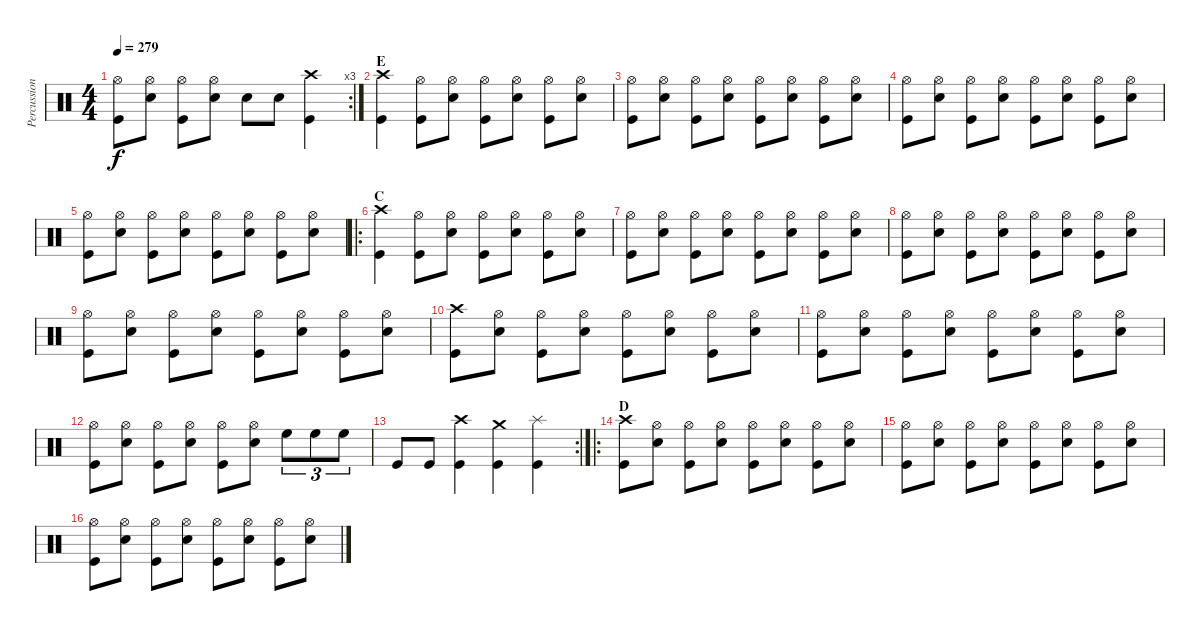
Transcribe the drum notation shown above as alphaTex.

\track ("Percussion" "Percussion") {instrument percussion}
\staff {score}
\articulation defaults
\rc 3
\ts (4 4)
\tempo 279
\clef neutral
\ks c
("Hi-Hat (open)" "Kick (hit)").8{dy f} ("Hi-Hat (open)" "Snare (hit) 2").8 ("Hi-Hat (open)" "Kick (hit)").8 ("Hi-Hat (open)" "Snare (hit) 2").8 "Snare (hit) 2".8 "Snare (hit) 2".8 ("Crash high (hit)" "Kick (hit)").4 |
\section ("" "E")
("Crash high (hit)" "Kick (hit)").4 ("Hi-Hat (open)" "Kick (hit)").8 ("Hi-Hat (open)" "Snare (hit) 2").8 ("Hi-Hat (open)" "Kick (hit)").8 ("Hi-Hat (open)" "Snare (hit) 2").8 ("Hi-Hat (open)" "Kick (hit)").8 ("Hi-Hat (open)" "Snare (hit) 2").8 |
("Hi-Hat (open)" "Kick (hit)").8 ("Hi-Hat (open)" "Snare (hit) 2").8 ("Hi-Hat (open)" "Kick (hit)").8 ("Hi-Hat (open)" "Snare (hit) 2").8 ("Hi-Hat (open)" "Kick (hit)").8 ("Hi-Hat (open)" "Snare (hit) 2").8 ("Hi-Hat (open)" "Kick (hit)").8 ("Hi-Hat (open)" "Snare (hit) 2").8 |
("Hi-Hat (open)" "Kick (hit)").8 ("Hi-Hat (open)" "Snare (hit) 2").8 ("Hi-Hat (open)" "Kick (hit)").8 ("Hi-Hat (open)" "Snare (hit) 2").8 ("Hi-Hat (open)" "Kick (hit)").8 ("Hi-Hat (open)" "Snare (hit) 2").8 ("Hi-Hat (open)" "Kick (hit)").8 ("Hi-Hat (open)" "Snare (hit) 2").8 |
("Hi-Hat (open)" "Kick (hit)").8 ("Hi-Hat (open)" "Snare (hit) 2").8 ("Hi-Hat (open)" "Kick (hit)").8 ("Hi-Hat (open)" "Snare (hit) 2").8 ("Hi-Hat (open)" "Kick (hit)").8 ("Hi-Hat (open)" "Snare (hit) 2").8 ("Hi-Hat (open)" "Kick (hit)").8 ("Hi-Hat (open)" "Snare (hit) 2").8 |
\ro
\section ("" "C")
("Crash high (hit)" "Kick (hit)").4 ("Hi-Hat (open)" "Kick (hit)").8 ("Hi-Hat (open)" "Snare (hit) 2").8 ("Hi-Hat (open)" "Kick (hit)").8 ("Hi-Hat (open)" "Snare (hit) 2").8 ("Hi-Hat (open)" "Kick (hit)").8 ("Hi-Hat (open)" "Snare (hit) 2").8 |
("Hi-Hat (open)" "Kick (hit)").8 ("Hi-Hat (open)" "Snare (hit) 2").8 ("Hi-Hat (open)" "Kick (hit)").8 ("Hi-Hat (open)" "Snare (hit) 2").8 ("Hi-Hat (open)" "Kick (hit)").8 ("Hi-Hat (open)" "Snare (hit) 2").8 ("Hi-Hat (open)" "Kick (hit)").8 ("Hi-Hat (open)" "Snare (hit) 2").8 |
("Hi-Hat (open)" "Kick (hit)").8 ("Hi-Hat (open)" "Snare (hit) 2").8 ("Hi-Hat (open)" "Kick (hit)").8 ("Hi-Hat (open)" "Snare (hit) 2").8 ("Hi-Hat (open)" "Kick (hit)").8 ("Hi-Hat (open)" "Snare (hit) 2").8 ("Hi-Hat (open)" "Kick (hit)").8 ("Hi-Hat (open)" "Snare (hit) 2").8 |
("Hi-Hat (open)" "Kick (hit)").8 ("Hi-Hat (open)" "Snare (hit) 2").8 ("Hi-Hat (open)" "Kick (hit)").8 ("Hi-Hat (open)" "Snare (hit) 2").8 ("Hi-Hat (open)" "Kick (hit)").8 ("Hi-Hat (open)" "Snare (hit) 2").8 ("Hi-Hat (open)" "Kick (hit)").8 ("Hi-Hat (open)" "Snare (hit) 2").8 |
("Crash high (hit)" "Kick (hit)").8 ("Hi-Hat (open)" "Snare (hit) 2").8 ("Hi-Hat (open)" "Kick (hit)").8 ("Hi-Hat (open)" "Snare (hit) 2").8 ("Hi-Hat (open)" "Kick (hit)").8 ("Hi-Hat (open)" "Snare (hit) 2").8 ("Hi-Hat (open)" "Kick (hit)").8 ("Hi-Hat (open)" "Snare (hit) 2").8 |
("Hi-Hat (open)" "Kick (hit)").8 ("Hi-Hat (open)" "Snare (hit) 2").8 ("Hi-Hat (open)" "Kick (hit)").8 ("Hi-Hat (open)" "Snare (hit) 2").8 ("Hi-Hat (open)" "Kick (hit)").8 ("Hi-Hat (open)" "Snare (hit) 2").8 ("Hi-Hat (open)" "Kick (hit)").8 ("Hi-Hat (open)" "Snare (hit) 2").8 |
("Hi-Hat (open)" "Kick (hit)").8 ("Hi-Hat (open)" "Snare (hit) 2").8 ("Hi-Hat (open)" "Kick (hit)").8 ("Hi-Hat (open)" "Snare (hit) 2").8 ("Hi-Hat (open)" "Kick (hit)").8 ("Hi-Hat (open)" "Snare (hit) 2").8 "High Floor Tom (hit)".8{tu (3 2)} "High Floor Tom (hit)".8{tu (3 2)} "High Floor Tom (hit)".8{tu (3 2)} |
\rc 2 "Kick (hit)".8 "Kick (hit)".8
("Crash high (hit)" "Kick (hit)").4 ("Crash medium (hit)" "Kick (hit)").4 ("Splash (hit)" "Kick (hit)").4 |
\ro
\section ("" "D")
("Crash high (hit)" "Kick (hit)").8 ("Hi-Hat (open)" "Snare (hit) 2").8 ("Hi-Hat (open)" "Kick (hit)").8 ("Hi-Hat (open)" "Snare (hit) 2").8 ("Hi-Hat (open)" "Kick (hit)").8 ("Hi-Hat (open)" "Snare (hit) 2").8 ("Hi-Hat (open)" "Kick (hit)").8 ("Hi-Hat (open)" "Snare (hit) 2").8 |
("Hi-Hat (open)" "Kick (hit)").8 ("Hi-Hat (open)" "Snare (hit) 2").8 ("Hi-Hat (open)" "Kick (hit)").8 ("Hi-Hat (open)" "Snare (hit) 2").8 ("Hi-Hat (open)" "Kick (hit)").8 ("Hi-Hat (open)" "Snare (hit) 2").8 ("Hi-Hat (open)" "Kick (hit)").8 ("Hi-Hat (open)" "Snare (hit) 2").8 |
("Hi-Hat (open)" "Kick (hit)").8 ("Hi-Hat (open)" "Snare (hit) 2").8 ("Hi-Hat (open)" "Kick (hit)").8 ("Hi-Hat (open)" "Snare (hit) 2").8 ("Hi-Hat (open)" "Kick (hit)").8 ("Hi-Hat (open)" "Snare (hit) 2").8 ("Hi-Hat (open)" "Kick (hit)").8 ("Hi-Hat (open)" "Snare (hit) 2").8
